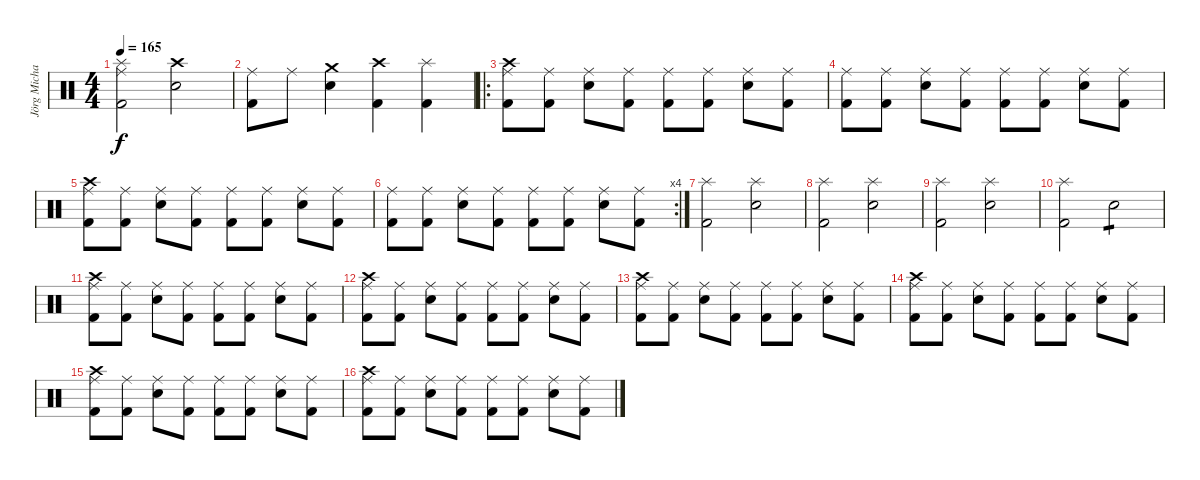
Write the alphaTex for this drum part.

\track ("Jörg Michael" "Jörg Micha") {instrument percussion}
\staff {score}
\articulation defaults
\ts (4 4)
\tempo 165
\clef neutral
\ks c
("Kick (hit) 2" "Ride (middle)" "Splash (hit)").2{dy f} ("Crash high (hit)" "Snare (hit) 2").2 |
("Kick (hit) 2" "Ride (middle)").8 "Ride (middle)".8 ("Snare (hit) 2" "Crash medium (hit)").4 ("Kick (hit) 2" "Crash high (hit)").4 ("Kick (hit) 2" "Splash (hit)").4 |
\ro
("Kick (hit) 2" "Ride (middle)" "Crash high (hit)").8 ("Kick (hit) 2" "Ride (middle)").8 ("Snare (hit) 2" "Ride (middle)").8 ("Kick (hit) 2" "Ride (middle)").8 ("Kick (hit) 2" "Ride (middle)").8 ("Kick (hit) 2" "Ride (middle)").8 ("Snare (hit) 2" "Ride (middle)").8 ("Kick (hit) 2" "Ride (middle)").8 |
("Kick (hit) 2" "Ride (middle)").8 ("Kick (hit) 2" "Ride (middle)").8 ("Snare (hit) 2" "Ride (middle)").8 ("Kick (hit) 2" "Ride (middle)").8 ("Kick (hit) 2" "Ride (middle)").8 ("Kick (hit) 2" "Ride (middle)").8 ("Snare (hit) 2" "Ride (middle)").8 ("Kick (hit) 2" "Ride (middle)").8 |
("Kick (hit) 2" "Ride (middle)" "Crash high (hit)").8 ("Kick (hit) 2" "Ride (middle)").8 ("Snare (hit) 2" "Ride (middle)").8 ("Kick (hit) 2" "Ride (middle)").8 ("Kick (hit) 2" "Ride (middle)").8 ("Kick (hit) 2" "Ride (middle)").8 ("Snare (hit) 2" "Ride (middle)").8 ("Kick (hit) 2" "Ride (middle)").8 |
\rc 4
("Kick (hit) 2" "Ride (middle)").8 ("Kick (hit) 2" "Ride (middle)").8 ("Snare (hit) 2" "Ride (middle)").8 ("Kick (hit) 2" "Ride (middle)").8 ("Kick (hit) 2" "Ride (middle)").8 ("Kick (hit) 2" "Ride (middle)").8 ("Snare (hit) 2" "Ride (middle)").8 ("Kick (hit) 2" "Ride (middle)").8 |
("Kick (hit) 2" "Splash (hit)").2 ("Snare (hit) 2" "Splash (hit)").2 |
("Kick (hit) 2" "Splash (hit)").2 ("Snare (hit) 2" "Splash (hit)").2 |
("Kick (hit) 2" "Splash (hit)").2 ("Snare (hit) 2" "Splash (hit)").2 |
("Kick (hit) 2" "Splash (hit)").2 "Snare (hit) 2".2{tp 1} |
("Kick (hit) 2" "Ride (middle)" "Crash high (hit)").8 ("Kick (hit) 2" "Ride (middle)").8 ("Snare (hit) 2" "Ride (middle)").8 ("Kick (hit) 2" "Ride (middle)").8 ("Kick (hit) 2" "Ride (middle)").8 ("Kick (hit) 2" "Ride (middle)").8 ("Snare (hit) 2" "Ride (middle)").8 ("Kick (hit) 2" "Ride (middle)").8 |
("Kick (hit) 2" "Ride (middle)" "Crash high (hit)").8 ("Kick (hit) 2" "Ride (middle)").8 ("Snare (hit) 2" "Ride (middle)").8 ("Kick (hit) 2" "Ride (middle)").8 ("Kick (hit) 2" "Ride (middle)").8 ("Kick (hit) 2" "Ride (middle)").8 ("Snare (hit) 2" "Ride (middle)").8 ("Kick (hit) 2" "Ride (middle)").8 |
("Kick (hit) 2" "Ride (middle)" "Crash high (hit)").8 ("Kick (hit) 2" "Ride (middle)").8 ("Snare (hit) 2" "Ride (middle)").8 ("Kick (hit) 2" "Ride (middle)").8 ("Kick (hit) 2" "Ride (middle)").8 ("Kick (hit) 2" "Ride (middle)").8 ("Snare (hit) 2" "Ride (middle)").8 ("Kick (hit) 2" "Ride (middle)").8 |
("Kick (hit) 2" "Ride (middle)" "Crash high (hit)").8 ("Kick (hit) 2" "Ride (middle)").8 ("Snare (hit) 2" "Ride (middle)").8 ("Kick (hit) 2" "Ride (middle)").8 ("Kick (hit) 2" "Ride (middle)").8 ("Kick (hit) 2" "Ride (middle)").8 ("Snare (hit) 2" "Ride (middle)").8 ("Kick (hit) 2" "Ride (middle)").8 |
("Kick (hit) 2" "Ride (middle)" "Crash high (hit)").8 ("Kick (hit) 2" "Ride (middle)").8 ("Snare (hit) 2" "Ride (middle)").8 ("Kick (hit) 2" "Ride (middle)").8 ("Kick (hit) 2" "Ride (middle)").8 ("Kick (hit) 2" "Ride (middle)").8 ("Snare (hit) 2" "Ride (middle)").8 ("Kick (hit) 2" "Ride (middle)").8 |
("Kick (hit) 2" "Ride (middle)" "Crash high (hit)").8 ("Kick (hit) 2" "Ride (middle)").8 ("Snare (hit) 2" "Ride (middle)").8 ("Kick (hit) 2" "Ride (middle)").8 ("Kick (hit) 2" "Ride (middle)").8 ("Kick (hit) 2" "Ride (middle)").8 ("Snare (hit) 2" "Ride (middle)").8 ("Kick (hit) 2" "Ride (middle)").8
